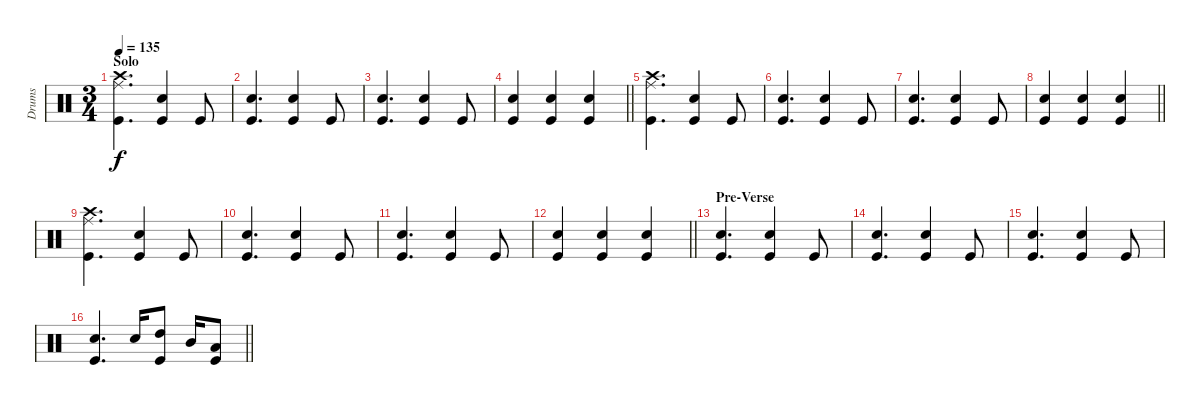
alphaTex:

\track ("Drums" "Drums") {instrument percussion}
\staff {score}
\articulation defaults
\ts (3 4)
\section ("" "Solo")
\tempo 135
\clef neutral
\ks c
("Crash high (hit)" "Ride (middle)" "Kick (hit)").4{d dy f} ("Snare (hit) 2" "Kick (hit)").4 "Kick (hit)".8 |
("Snare (hit) 2" "Kick (hit)").4{d} ("Snare (hit) 2" "Kick (hit)").4 "Kick (hit)".8 |
("Snare (hit) 2" "Kick (hit)").4{d} ("Snare (hit) 2" "Kick (hit)").4 "Kick (hit)".8 |
\barLineRight lightlight
("Snare (hit) 2" "Kick (hit)").4 ("Snare (hit) 2" "Kick (hit)").4 ("Snare (hit) 2" "Kick (hit)").4 |
("Crash high (hit)" "Ride (middle)" "Kick (hit)").4{d} ("Snare (hit) 2" "Kick (hit)").4 "Kick (hit)".8 |
("Snare (hit) 2" "Kick (hit)").4{d} ("Snare (hit) 2" "Kick (hit)").4 "Kick (hit)".8 |
("Snare (hit) 2" "Kick (hit)").4{d} ("Snare (hit) 2" "Kick (hit)").4 "Kick (hit)".8 |
\barLineRight lightlight
("Snare (hit) 2" "Kick (hit)").4 ("Snare (hit) 2" "Kick (hit)").4 ("Snare (hit) 2" "Kick (hit)").4 |
("Crash high (hit)" "Ride (middle)" "Kick (hit)").4{d} ("Snare (hit) 2" "Kick (hit)").4 "Kick (hit)".8 |
("Snare (hit) 2" "Kick (hit)").4{d} ("Snare (hit) 2" "Kick (hit)").4 "Kick (hit)".8 |
("Snare (hit) 2" "Kick (hit)").4{d} ("Snare (hit) 2" "Kick (hit)").4 "Kick (hit)".8 |
\barLineRight lightlight
("Snare (hit) 2" "Kick (hit)").4 ("Snare (hit) 2" "Kick (hit)").4 ("Snare (hit) 2" "Kick (hit)").4 |
\section ("" "Pre-Verse")
("Snare (hit) 2" "Kick (hit)").4{d} ("Snare (hit) 2" "Kick (hit)").4 "Kick (hit)".8 |
("Snare (hit) 2" "Kick (hit)").4{d} ("Snare (hit) 2" "Kick (hit)").4 "Kick (hit)".8 |
("Snare (hit) 2" "Kick (hit)").4{d} ("Snare (hit) 2" "Kick (hit)").4 "Kick (hit)".8 |
\barLineRight lightlight
("Snare (hit) 2" "Kick (hit)").4{d} "Electric Snare (hit)".16 ("High Tom (hit)" "Kick (hit)").8 "Mid Tom (hit)".16 ("Low Tom (hit)" "Kick (hit)").8
